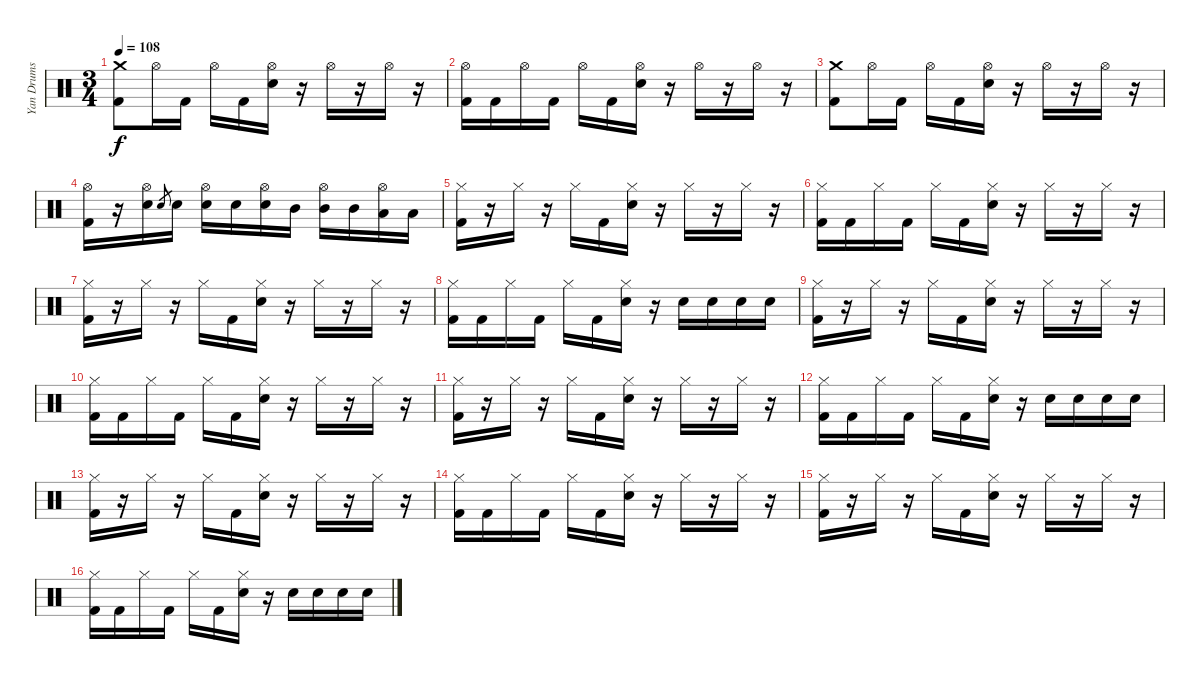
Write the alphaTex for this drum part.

\track ("Yan Drums" "Yan Drums") {instrument percussion}
\staff {score}
\articulation defaults
\ts (3 4)
\tempo 108
\clef neutral
\ks c
("Kick (hit) 2" "Crash medium (hit)").8{dy f} "Hi-Hat (open)".16 "Kick (hit) 2".16 "Hi-Hat (open)".16 "Kick (hit) 2".16 ("Electric Snare (hit)" "Hi-Hat (open)").16 r.16 "Hi-Hat (open)".16 r.16 "Hi-Hat (open)".16 r.16 |
("Kick (hit) 2" "Hi-Hat (open)").16 "Kick (hit) 2".16 "Hi-Hat (open)".16 "Kick (hit) 2".16 "Hi-Hat (open)".16 "Kick (hit) 2".16 ("Electric Snare (hit)" "Hi-Hat (open)").16 r.16 "Hi-Hat (open)".16 r.16 "Hi-Hat (open)".16 r.16 |
("Kick (hit) 2" "Crash medium (hit)").8 "Hi-Hat (open)".16 "Kick (hit) 2".16 "Hi-Hat (open)".16 "Kick (hit) 2".16 ("Electric Snare (hit)" "Hi-Hat (open)").16 r.16 "Hi-Hat (open)".16 r.16 "Hi-Hat (open)".16 r.16 |
("Kick (hit) 2" "Hi-Hat (open)").16 r.16 ("Electric Snare (hit)" "Hi-Hat (open)").16 "Electric Snare (hit)".8{gr} "Electric Snare (hit)".16 ("Electric Snare (hit)" "Hi-Hat (open)").16 "Electric Snare (hit)".16 ("Electric Snare (hit)" "Hi-Hat (open)").16 "Mid Tom (hit)".16 ("Mid Tom (hit)" "Hi-Hat (open)").16 "Mid Tom (hit)".16 ("Low Tom (hit)" "Hi-Hat (open)").16 "Low Tom (hit)".16 |
("Kick (hit) 2" "Hi-Hat (closed)").16 r.16 "Hi-Hat (closed)".16 r.16 "Hi-Hat (closed)".16 "Kick (hit) 2".16 ("Electric Snare (hit)" "Hi-Hat (closed)").16 r.16 "Hi-Hat (closed)".16 r.16 "Hi-Hat (closed)".16 r.16 |
("Kick (hit) 2" "Hi-Hat (closed)").16 "Kick (hit) 2".16 "Hi-Hat (closed)".16 "Kick (hit) 2".16 "Hi-Hat (closed)".16 "Kick (hit) 2".16 ("Electric Snare (hit)" "Hi-Hat (closed)").16 r.16 "Hi-Hat (closed)".16 r.16 "Hi-Hat (closed)".16 r.16 |
("Kick (hit) 2" "Hi-Hat (closed)").16 r.16 "Hi-Hat (closed)".16 r.16 "Hi-Hat (closed)".16 "Kick (hit) 2".16 ("Electric Snare (hit)" "Hi-Hat (closed)").16 r.16 "Hi-Hat (closed)".16 r.16 "Hi-Hat (closed)".16 r.16 |
("Kick (hit) 2" "Hi-Hat (closed)").16 "Kick (hit) 2".16 "Hi-Hat (closed)".16 "Kick (hit) 2".16 "Hi-Hat (closed)".16 "Kick (hit) 2".16 ("Electric Snare (hit)" "Hi-Hat (closed)").16 r.16 "Electric Snare (hit)".16 "Electric Snare (hit)".16 "Electric Snare (hit)".16 "Electric Snare (hit)".16 |
("Kick (hit) 2" "Hi-Hat (closed)").16 r.16 "Hi-Hat (closed)".16 r.16 "Hi-Hat (closed)".16 "Kick (hit) 2".16 ("Electric Snare (hit)" "Hi-Hat (closed)").16 r.16 "Hi-Hat (closed)".16 r.16 "Hi-Hat (closed)".16 r.16 |
("Kick (hit) 2" "Hi-Hat (closed)").16 "Kick (hit) 2".16 "Hi-Hat (closed)".16 "Kick (hit) 2".16 "Hi-Hat (closed)".16 "Kick (hit) 2".16 ("Electric Snare (hit)" "Hi-Hat (closed)").16 r.16 "Hi-Hat (closed)".16 r.16 "Hi-Hat (closed)".16 r.16 |
("Kick (hit) 2" "Hi-Hat (closed)").16 r.16 "Hi-Hat (closed)".16 r.16 "Hi-Hat (closed)".16 "Kick (hit) 2".16 ("Electric Snare (hit)" "Hi-Hat (closed)").16 r.16 "Hi-Hat (closed)".16 r.16 "Hi-Hat (closed)".16 r.16 |
("Kick (hit) 2" "Hi-Hat (closed)").16 "Kick (hit) 2".16 "Hi-Hat (closed)".16 "Kick (hit) 2".16 "Hi-Hat (closed)".16 "Kick (hit) 2".16 ("Electric Snare (hit)" "Hi-Hat (closed)").16 r.16 "Electric Snare (hit)".16 "Electric Snare (hit)".16 "Electric Snare (hit)".16 "Electric Snare (hit)".16 |
("Kick (hit) 2" "Hi-Hat (closed)").16 r.16 "Hi-Hat (closed)".16 r.16 "Hi-Hat (closed)".16 "Kick (hit) 2".16 ("Electric Snare (hit)" "Hi-Hat (closed)").16 r.16 "Hi-Hat (closed)".16 r.16 "Hi-Hat (closed)".16 r.16 |
("Kick (hit) 2" "Hi-Hat (closed)").16 "Kick (hit) 2".16 "Hi-Hat (closed)".16 "Kick (hit) 2".16 "Hi-Hat (closed)".16 "Kick (hit) 2".16 ("Electric Snare (hit)" "Hi-Hat (closed)").16 r.16 "Hi-Hat (closed)".16 r.16 "Hi-Hat (closed)".16 r.16 |
("Kick (hit) 2" "Hi-Hat (closed)").16 r.16 "Hi-Hat (closed)".16 r.16 "Hi-Hat (closed)".16 "Kick (hit) 2".16 ("Electric Snare (hit)" "Hi-Hat (closed)").16 r.16 "Hi-Hat (closed)".16 r.16 "Hi-Hat (closed)".16 r.16 |
("Kick (hit) 2" "Hi-Hat (closed)").16 "Kick (hit) 2".16 "Hi-Hat (closed)".16 "Kick (hit) 2".16 "Hi-Hat (closed)".16 "Kick (hit) 2".16 ("Electric Snare (hit)" "Hi-Hat (closed)").16 r.16 "Electric Snare (hit)".16 "Electric Snare (hit)".16 "Electric Snare (hit)".16 "Electric Snare (hit)".16
